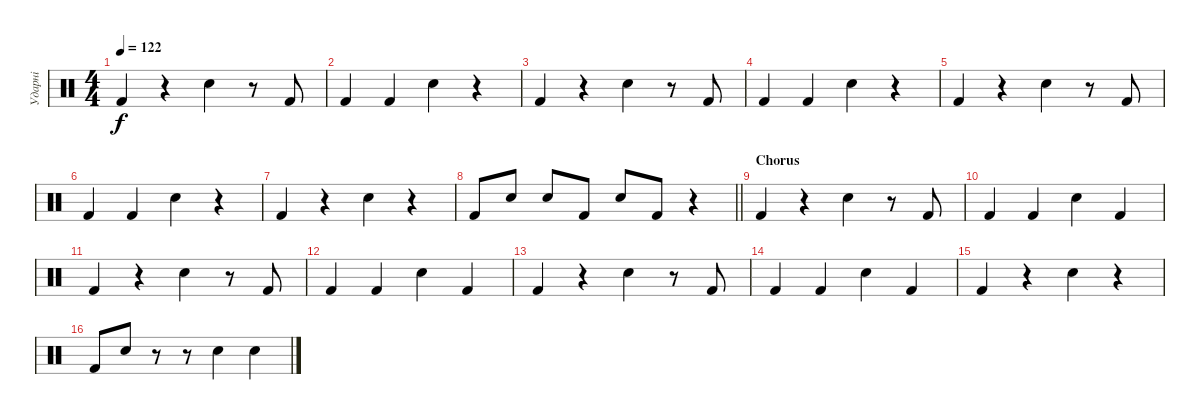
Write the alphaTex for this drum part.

\track ("Ударні" "Ударні") {instrument percussion}
\staff {score}
\articulation defaults
\ts (4 4)
\tempo 122
\clef neutral
\ks c "Kick (hit) 2".4{dy f}
r.4 "Snare (hit) 2".4 r.8 "Kick (hit) 2".8 |
"Kick (hit) 2".4 "Kick (hit) 2".4 "Snare (hit) 2".4 r.4 |
"Kick (hit) 2".4 r.4 "Snare (hit) 2".4 r.8 "Kick (hit) 2".8 |
"Kick (hit) 2".4 "Kick (hit) 2".4 "Snare (hit) 2".4 r.4 |
"Kick (hit) 2".4 r.4 "Snare (hit) 2".4 r.8 "Kick (hit) 2".8 |
"Kick (hit) 2".4 "Kick (hit) 2".4 "Snare (hit) 2".4 r.4 |
"Kick (hit) 2".4 r.4 "Snare (hit) 2".4 r.4 |
\barLineRight lightlight "Kick (hit) 2".8 "Snare (hit) 2".8 "Snare (hit) 2".8 "Kick (hit) 2".8 "Snare (hit) 2".8 "Kick (hit) 2".8
r.4 |
\section ("" "Chorus")
"Kick (hit) 2".4 r.4 "Snare (hit) 2".4 r.8 "Kick (hit) 2".8 |
"Kick (hit) 2".4 "Kick (hit) 2".4 "Snare (hit) 2".4 "Kick (hit) 2".4 |
"Kick (hit) 2".4 r.4 "Snare (hit) 2".4 r.8 "Kick (hit) 2".8 |
"Kick (hit) 2".4 "Kick (hit) 2".4 "Snare (hit) 2".4 "Kick (hit) 2".4 |
"Kick (hit) 2".4 r.4 "Snare (hit) 2".4 r.8 "Kick (hit) 2".8 |
"Kick (hit) 2".4 "Kick (hit) 2".4 "Snare (hit) 2".4 "Kick (hit) 2".4 |
"Kick (hit) 2".4 r.4 "Snare (hit) 2".4 r.4 |
"Kick (hit) 2".8 "Snare (hit) 2".8 r.8 r.8 "Snare (hit) 2".4 "Snare (hit) 2".4
